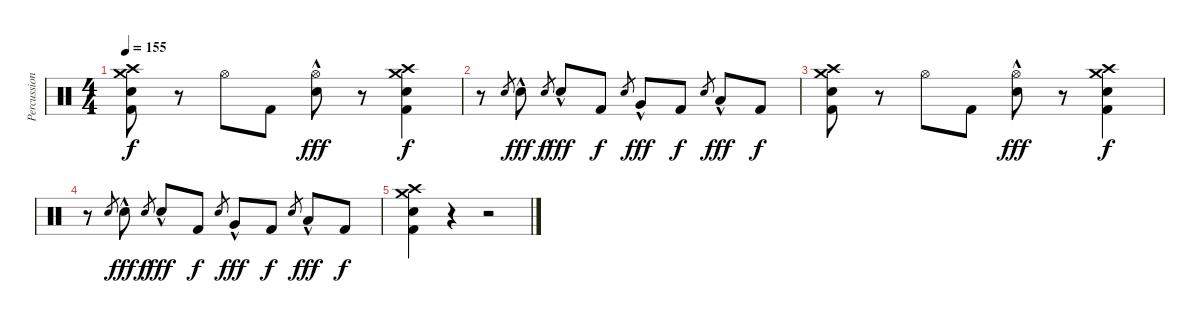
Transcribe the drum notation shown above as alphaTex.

\track ("Percussion" "Percussion") {instrument percussion}
\staff {score}
\articulation defaults
\ts (4 4)
\tempo 155
\clef neutral
\ks c
("Crash high (hit)" "Crash medium (hit)" "Electric Snare (hit)" "Kick (hit) 2").8{dy f} r.8 "Hi-Hat (open)".8 "Kick (hit) 2".8 ("Hi-Hat (open)" "Electric Snare (hit)"{hac}).8{dy fff} r.8 ("Crash high (hit)" "Crash medium (hit)" "Electric Snare (hit)" "Kick (hit) 2").4{dy f} |
r.8 "Electric Snare (hit)".8{gr} "Electric Snare (hit)"{hac}.8{dy fff} "Electric Snare (hit)".8{gr dy f} "Electric Snare (hit)"{hac}.8{dy fff} "Kick (hit) 2".8{dy f} "Electric Snare (hit)"{x}.8{gr} "Very Low Tom (hit)"{hac}.8{dy fff} "Kick (hit) 2".8{dy f} "Electric Snare (hit)"{x}.8{gr} "Low Floor Tom (hit)"{hac}.8{dy fff} "Kick (hit) 2".8{dy f} |
("Crash high (hit)" "Crash medium (hit)" "Electric Snare (hit)" "Kick (hit) 2").8 r.8 "Hi-Hat (open)".8 "Kick (hit) 2".8 ("Hi-Hat (open)" "Electric Snare (hit)"{hac}).8{dy fff} r.8 ("Crash high (hit)" "Crash medium (hit)" "Electric Snare (hit)" "Kick (hit) 2").4{dy f} |
r.8 "Electric Snare (hit)".8{gr} "Electric Snare (hit)"{hac}.8{dy fff} "Electric Snare (hit)".8{gr dy f} "Electric Snare (hit)"{hac}.8{dy fff} "Kick (hit) 2".8{dy f} "Electric Snare (hit)"{x}.8{gr} "Very Low Tom (hit)"{hac}.8{dy fff} "Kick (hit) 2".8{dy f} "Electric Snare (hit)"{x}.8{gr} "Low Floor Tom (hit)"{hac}.8{dy fff} "Kick (hit) 2".8{dy f} |
("Crash high (hit)" "Crash medium (hit)" "Electric Snare (hit)" "Kick (hit) 2").4 r.4 r.2
